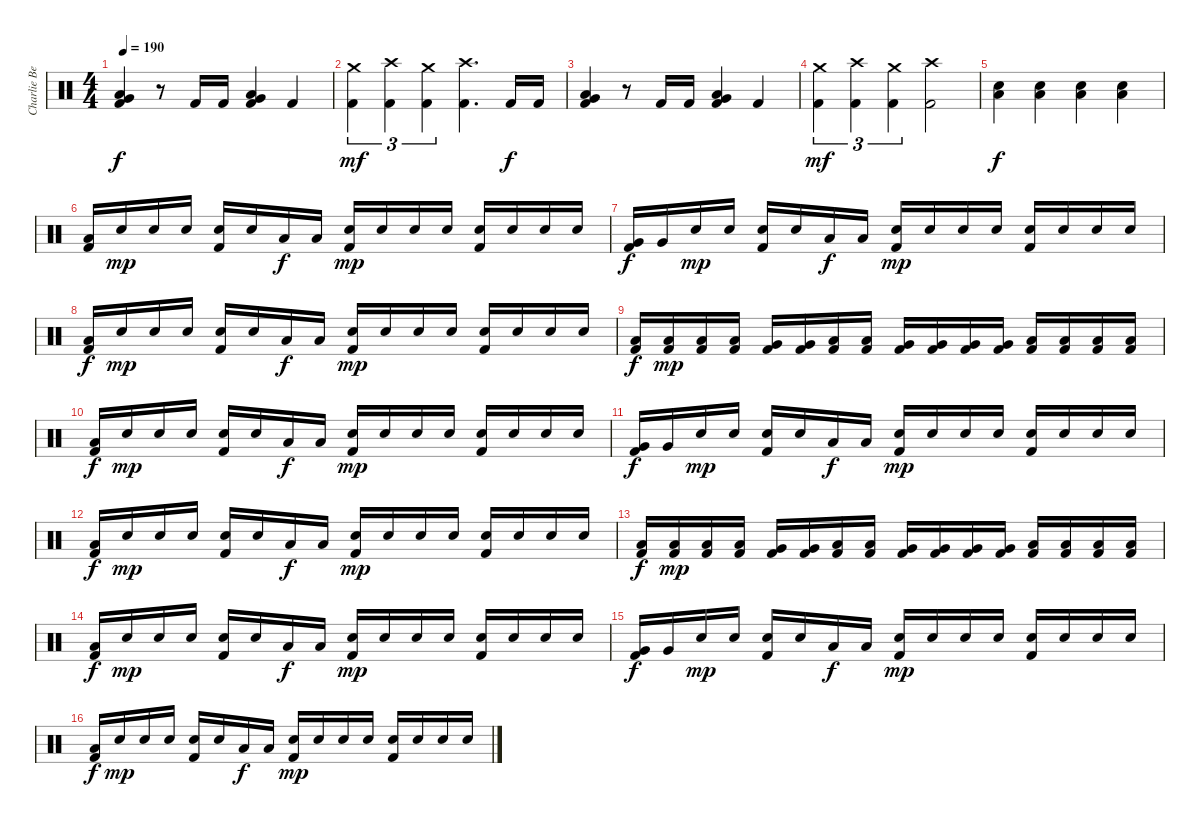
\track ("Charlie Benante" "Charlie Be") {instrument percussion}
\staff {score}
\articulation defaults
\ts (4 4)
\tempo 190
\clef neutral
\ks c
("Kick (hit) 2" "Low Floor Tom (hit)" "Very Low Tom (hit)").4{dy f} r.8 "Kick (hit) 2".16 "Kick (hit) 2".16 ("Kick (hit) 2" "Low Floor Tom (hit)" "Very Low Tom (hit)").4 "Kick (hit) 2".4 |
("Kick (hit) 2" "Crash medium (hit)").4{tu (3 2) dy mf} ("Kick (hit) 2" "Crash high (hit)").4{tu (3 2)} ("Kick (hit) 2" "Crash medium (hit)").4{tu (3 2)} ("Kick (hit) 2" "Crash high (hit)").4{d} "Kick (hit) 2".16{dy f} "Kick (hit) 2".16 |
("Kick (hit) 2" "Low Floor Tom (hit)" "Very Low Tom (hit)").4 r.8 "Kick (hit) 2".16 "Kick (hit) 2".16 ("Kick (hit) 2" "Low Floor Tom (hit)" "Very Low Tom (hit)").4 "Kick (hit) 2".4 |
("Kick (hit) 2" "Crash medium (hit)").4{tu (3 2) dy mf} ("Kick (hit) 2" "Crash high (hit)").4{tu (3 2)} ("Kick (hit) 2" "Crash medium (hit)").4{tu (3 2)} ("Kick (hit) 2" "Crash high (hit)").2 |
("Snare (hit) 2" "Low Floor Tom (hit)").4{dy f} ("Snare (hit) 2" "Low Floor Tom (hit)").4 ("Snare (hit) 2" "Low Floor Tom (hit)").4 ("Snare (hit) 2" "Low Floor Tom (hit)").4 |
("Kick (hit) 2" "Low Tom (hit)").16 "Snare (hit) 2".16{dy mp} "Snare (hit) 2".16 "Snare (hit) 2".16 ("Kick (hit) 2" "Snare (hit) 2").16 "Snare (hit) 2".16 "Low Tom (hit)".16{dy f} "Low Tom (hit)".16 ("Kick (hit) 2" "Snare (hit) 2").16{dy mp} "Snare (hit) 2".16 "Snare (hit) 2".16 "Snare (hit) 2".16 ("Kick (hit) 2" "Snare (hit) 2").16 "Snare (hit) 2".16 "Snare (hit) 2".16 "Snare (hit) 2".16 |
("Kick (hit) 2" "Very Low Tom (hit)").16{dy f} "Very Low Tom (hit)".16 "Snare (hit) 2".16{dy mp} "Snare (hit) 2".16 ("Kick (hit) 2" "Snare (hit) 2").16 "Snare (hit) 2".16 "Low Floor Tom (hit)".16{dy f} "Low Floor Tom (hit)".16 ("Kick (hit) 2" "Snare (hit) 2").16{dy mp} "Snare (hit) 2".16 "Snare (hit) 2".16 "Snare (hit) 2".16 ("Kick (hit) 2" "Snare (hit) 2").16 "Snare (hit) 2".16 "Snare (hit) 2".16 "Snare (hit) 2".16 |
("Kick (hit) 2" "Low Tom (hit)").16{dy f} "Snare (hit) 2".16{dy mp} "Snare (hit) 2".16 "Snare (hit) 2".16 ("Kick (hit) 2" "Snare (hit) 2").16 "Snare (hit) 2".16 "Low Tom (hit)".16{dy f} "Low Tom (hit)".16 ("Kick (hit) 2" "Snare (hit) 2").16{dy mp} "Snare (hit) 2".16 "Snare (hit) 2".16 "Snare (hit) 2".16 ("Kick (hit) 2" "Snare (hit) 2").16 "Snare (hit) 2".16 "Snare (hit) 2".16 "Snare (hit) 2".16 |
("Kick (hit) 2" "Low Tom (hit)").16{dy f} ("Kick (hit) 2" "Low Tom (hit)").16{dy mp} ("Kick (hit) 2" "Low Tom (hit)").16 ("Kick (hit) 2" "Low Tom (hit)").16 ("Kick (hit) 2" "Very Low Tom (hit)").16 ("Kick (hit) 2" "Very Low Tom (hit)").16 ("Kick (hit) 2" "Low Floor Tom (hit)").16 ("Kick (hit) 2" "Low Floor Tom (hit)").16 ("Kick (hit) 2" "Very Low Tom (hit)").16 ("Kick (hit) 2" "Very Low Tom (hit)").16 ("Kick (hit) 2" "Very Low Tom (hit)").16 ("Kick (hit) 2" "Very Low Tom (hit)").16 ("Kick (hit) 2" "Low Floor Tom (hit)").16 ("Kick (hit) 2" "Low Floor Tom (hit)").16 ("Kick (hit) 2" "Low Floor Tom (hit)").16 ("Kick (hit) 2" "Low Floor Tom (hit)").16 |
("Kick (hit) 2" "Low Tom (hit)").16{dy f} "Snare (hit) 2".16{dy mp} "Snare (hit) 2".16 "Snare (hit) 2".16 ("Kick (hit) 2" "Snare (hit) 2").16 "Snare (hit) 2".16 "Low Tom (hit)".16{dy f} "Low Tom (hit)".16 ("Kick (hit) 2" "Snare (hit) 2").16{dy mp} "Snare (hit) 2".16 "Snare (hit) 2".16 "Snare (hit) 2".16 ("Kick (hit) 2" "Snare (hit) 2").16 "Snare (hit) 2".16 "Snare (hit) 2".16 "Snare (hit) 2".16 |
("Kick (hit) 2" "Very Low Tom (hit)").16{dy f} "Very Low Tom (hit)".16 "Snare (hit) 2".16{dy mp} "Snare (hit) 2".16 ("Kick (hit) 2" "Snare (hit) 2").16 "Snare (hit) 2".16 "Low Floor Tom (hit)".16{dy f} "Low Floor Tom (hit)".16 ("Kick (hit) 2" "Snare (hit) 2").16{dy mp} "Snare (hit) 2".16 "Snare (hit) 2".16 "Snare (hit) 2".16 ("Kick (hit) 2" "Snare (hit) 2").16 "Snare (hit) 2".16 "Snare (hit) 2".16 "Snare (hit) 2".16 |
("Kick (hit) 2" "Low Tom (hit)").16{dy f} "Snare (hit) 2".16{dy mp} "Snare (hit) 2".16 "Snare (hit) 2".16 ("Kick (hit) 2" "Snare (hit) 2").16 "Snare (hit) 2".16 "Low Tom (hit)".16{dy f} "Low Tom (hit)".16 ("Kick (hit) 2" "Snare (hit) 2").16{dy mp} "Snare (hit) 2".16 "Snare (hit) 2".16 "Snare (hit) 2".16 ("Kick (hit) 2" "Snare (hit) 2").16 "Snare (hit) 2".16 "Snare (hit) 2".16 "Snare (hit) 2".16 |
("Kick (hit) 2" "Low Tom (hit)").16{dy f} ("Kick (hit) 2" "Low Tom (hit)").16{dy mp} ("Kick (hit) 2" "Low Tom (hit)").16 ("Kick (hit) 2" "Low Tom (hit)").16 ("Kick (hit) 2" "Very Low Tom (hit)").16 ("Kick (hit) 2" "Very Low Tom (hit)").16 ("Kick (hit) 2" "Low Floor Tom (hit)").16 ("Kick (hit) 2" "Low Floor Tom (hit)").16 ("Kick (hit) 2" "Very Low Tom (hit)").16 ("Kick (hit) 2" "Very Low Tom (hit)").16 ("Kick (hit) 2" "Very Low Tom (hit)").16 ("Kick (hit) 2" "Very Low Tom (hit)").16 ("Kick (hit) 2" "Low Floor Tom (hit)").16 ("Kick (hit) 2" "Low Floor Tom (hit)").16 ("Kick (hit) 2" "Low Floor Tom (hit)").16 ("Kick (hit) 2" "Low Floor Tom (hit)").16 |
("Kick (hit) 2" "Low Tom (hit)").16{dy f} "Snare (hit) 2".16{dy mp} "Snare (hit) 2".16 "Snare (hit) 2".16 ("Kick (hit) 2" "Snare (hit) 2").16 "Snare (hit) 2".16 "Low Tom (hit)".16{dy f} "Low Tom (hit)".16 ("Kick (hit) 2" "Snare (hit) 2").16{dy mp} "Snare (hit) 2".16 "Snare (hit) 2".16 "Snare (hit) 2".16 ("Kick (hit) 2" "Snare (hit) 2").16 "Snare (hit) 2".16 "Snare (hit) 2".16 "Snare (hit) 2".16 |
("Kick (hit) 2" "Very Low Tom (hit)").16{dy f} "Very Low Tom (hit)".16 "Snare (hit) 2".16{dy mp} "Snare (hit) 2".16 ("Kick (hit) 2" "Snare (hit) 2").16 "Snare (hit) 2".16 "Low Floor Tom (hit)".16{dy f} "Low Floor Tom (hit)".16 ("Kick (hit) 2" "Snare (hit) 2").16{dy mp} "Snare (hit) 2".16 "Snare (hit) 2".16 "Snare (hit) 2".16 ("Kick (hit) 2" "Snare (hit) 2").16 "Snare (hit) 2".16 "Snare (hit) 2".16 "Snare (hit) 2".16 |
("Kick (hit) 2" "Low Tom (hit)").16{dy f} "Snare (hit) 2".16{dy mp} "Snare (hit) 2".16 "Snare (hit) 2".16 ("Kick (hit) 2" "Snare (hit) 2").16 "Snare (hit) 2".16 "Low Tom (hit)".16{dy f} "Low Tom (hit)".16 ("Kick (hit) 2" "Snare (hit) 2").16{dy mp} "Snare (hit) 2".16 "Snare (hit) 2".16 "Snare (hit) 2".16 ("Kick (hit) 2" "Snare (hit) 2").16 "Snare (hit) 2".16 "Snare (hit) 2".16 "Snare (hit) 2".16
